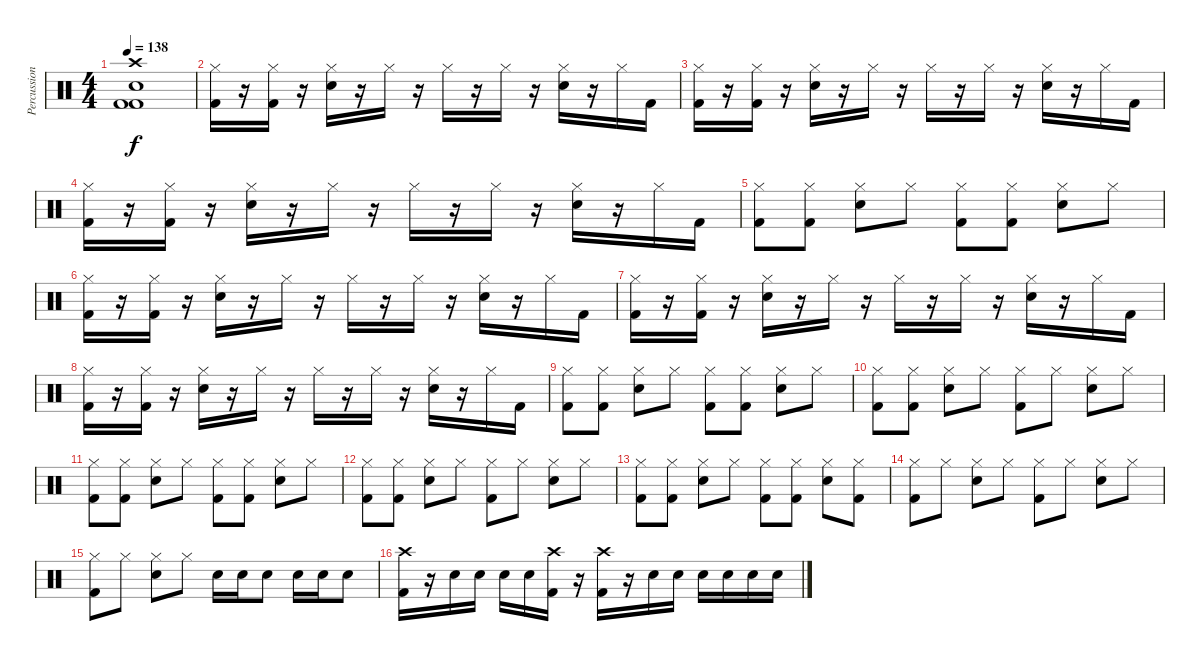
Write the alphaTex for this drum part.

\track ("Percussion" "Percussion") {instrument percussion}
\staff {score}
\articulation defaults
\ts (4 4)
\tempo 138
\clef neutral
\ks c
("Crash high (hit)" "Snare (hit) 2" "Kick (hit) 2" "Kick (hit) 2").1{dy f} |
("Hi-Hat (closed)" "Kick (hit) 2").16 r.16 ("Hi-Hat (closed)" "Kick (hit) 2").16 r.16 ("Hi-Hat (closed)" "Snare (hit) 2").16 r.16 "Hi-Hat (closed)".16 r.16 "Hi-Hat (closed)".16 r.16 "Hi-Hat (closed)".16 r.16 ("Hi-Hat (closed)" "Snare (hit) 2").16 r.16 "Hi-Hat (closed)".16 "Kick (hit) 2".16 |
("Hi-Hat (closed)" "Kick (hit) 2").16 r.16 ("Hi-Hat (closed)" "Kick (hit) 2").16 r.16 ("Hi-Hat (closed)" "Snare (hit) 2").16 r.16 "Hi-Hat (closed)".16 r.16 "Hi-Hat (closed)".16 r.16 "Hi-Hat (closed)".16 r.16 ("Hi-Hat (closed)" "Snare (hit) 2").16 r.16 "Hi-Hat (closed)".16 "Kick (hit) 2".16 |
("Hi-Hat (closed)" "Kick (hit) 2").16 r.16 ("Hi-Hat (closed)" "Kick (hit) 2").16 r.16 ("Hi-Hat (closed)" "Snare (hit) 2").16 r.16 "Hi-Hat (closed)".16 r.16 "Hi-Hat (closed)".16 r.16 "Hi-Hat (closed)".16 r.16 ("Hi-Hat (closed)" "Snare (hit) 2").16 r.16 "Hi-Hat (closed)".16 "Kick (hit) 2".16 |
("Hi-Hat (closed)" "Kick (hit) 2").8 ("Hi-Hat (closed)" "Kick (hit) 2").8 ("Hi-Hat (closed)" "Snare (hit) 2").8 "Hi-Hat (closed)".8 ("Hi-Hat (closed)" "Kick (hit) 2").8 ("Hi-Hat (closed)" "Kick (hit) 2").8 ("Hi-Hat (closed)" "Snare (hit) 2").8 "Hi-Hat (closed)".8 |
("Hi-Hat (closed)" "Kick (hit) 2").16 r.16 ("Hi-Hat (closed)" "Kick (hit) 2").16 r.16 ("Hi-Hat (closed)" "Snare (hit) 2").16 r.16 "Hi-Hat (closed)".16 r.16 "Hi-Hat (closed)".16 r.16 "Hi-Hat (closed)".16 r.16 ("Hi-Hat (closed)" "Snare (hit) 2").16 r.16 "Hi-Hat (closed)".16 "Kick (hit) 2".16 |
("Hi-Hat (closed)" "Kick (hit) 2").16 r.16 ("Hi-Hat (closed)" "Kick (hit) 2").16 r.16 ("Hi-Hat (closed)" "Snare (hit) 2").16 r.16 "Hi-Hat (closed)".16 r.16 "Hi-Hat (closed)".16 r.16 "Hi-Hat (closed)".16 r.16 ("Hi-Hat (closed)" "Snare (hit) 2").16 r.16 "Hi-Hat (closed)".16 "Kick (hit) 2".16 |
("Hi-Hat (closed)" "Kick (hit) 2").16 r.16 ("Hi-Hat (closed)" "Kick (hit) 2").16 r.16 ("Hi-Hat (closed)" "Snare (hit) 2").16 r.16 "Hi-Hat (closed)".16 r.16 "Hi-Hat (closed)".16 r.16 "Hi-Hat (closed)".16 r.16 ("Hi-Hat (closed)" "Snare (hit) 2").16 r.16 "Hi-Hat (closed)".16 "Kick (hit) 2".16 |
("Hi-Hat (closed)" "Kick (hit) 2").8 ("Hi-Hat (closed)" "Kick (hit) 2").8 ("Hi-Hat (closed)" "Snare (hit) 2").8 "Hi-Hat (closed)".8 ("Hi-Hat (closed)" "Kick (hit) 2").8 ("Hi-Hat (closed)" "Kick (hit) 2").8 ("Hi-Hat (closed)" "Snare (hit) 2").8 "Hi-Hat (closed)".8 |
("Hi-Hat (closed)" "Kick (hit) 2").8 ("Hi-Hat (closed)" "Kick (hit) 2").8 ("Hi-Hat (closed)" "Snare (hit) 2").8 "Hi-Hat (closed)".8 ("Hi-Hat (closed)" "Kick (hit) 2").8 "Hi-Hat (closed)".8 ("Hi-Hat (closed)" "Snare (hit) 2").8 "Hi-Hat (closed)".8 |
("Hi-Hat (closed)" "Kick (hit) 2").8 ("Hi-Hat (closed)" "Kick (hit) 2").8 ("Hi-Hat (closed)" "Snare (hit) 2").8 "Hi-Hat (closed)".8 ("Hi-Hat (closed)" "Kick (hit) 2").8 ("Hi-Hat (closed)" "Kick (hit) 2").8 ("Hi-Hat (closed)" "Snare (hit) 2").8 "Hi-Hat (closed)".8 |
("Hi-Hat (closed)" "Kick (hit) 2").8 ("Hi-Hat (closed)" "Kick (hit) 2").8 ("Hi-Hat (closed)" "Snare (hit) 2").8 "Hi-Hat (closed)".8 ("Hi-Hat (closed)" "Kick (hit) 2").8 "Hi-Hat (closed)".8 ("Hi-Hat (closed)" "Snare (hit) 2").8 "Hi-Hat (closed)".8 |
("Hi-Hat (closed)" "Kick (hit) 2").8 ("Hi-Hat (closed)" "Kick (hit) 2").8 ("Hi-Hat (closed)" "Snare (hit) 2").8 "Hi-Hat (closed)".8 ("Hi-Hat (closed)" "Kick (hit) 2").8 ("Hi-Hat (closed)" "Kick (hit) 2").8 ("Hi-Hat (closed)" "Snare (hit) 2").8 ("Hi-Hat (closed)" "Kick (hit) 2").8 |
("Hi-Hat (closed)" "Kick (hit) 2").8 "Hi-Hat (closed)".8 ("Hi-Hat (closed)" "Snare (hit) 2").8 "Hi-Hat (closed)".8 ("Hi-Hat (closed)" "Kick (hit) 2").8 "Hi-Hat (closed)".8 ("Hi-Hat (closed)" "Snare (hit) 2").8 "Hi-Hat (closed)".8 |
("Hi-Hat (closed)" "Kick (hit) 2").8 "Hi-Hat (closed)".8 ("Hi-Hat (closed)" "Snare (hit) 2").8 "Hi-Hat (closed)".8 "Snare (hit) 2".16 "Snare (hit) 2".16 "Snare (hit) 2".8 "Snare (hit) 2".16 "Snare (hit) 2".16 "Snare (hit) 2".8 |
("Crash high (hit)" "Kick (hit) 2").16 r.16 "Snare (hit) 2".16 "Snare (hit) 2".16 "Snare (hit) 2".16 "Snare (hit) 2".16 ("Crash high (hit)" "Kick (hit) 2").16 r.16 ("Crash high (hit)" "Kick (hit) 2").16 r.16 "Snare (hit) 2".16 "Snare (hit) 2".16 "Snare (hit) 2".16 "Snare (hit) 2".16 "Snare (hit) 2".16 "Snare (hit) 2".16
